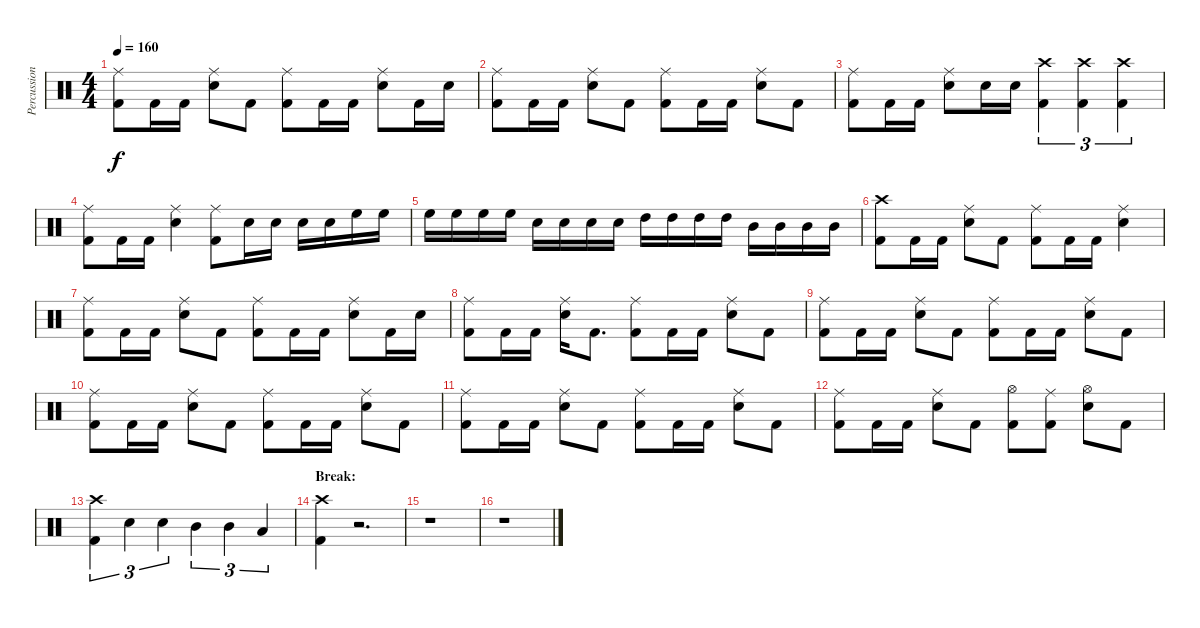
\track ("Percussion" "Percussion") {instrument percussion}
\staff {score}
\articulation defaults
\ts (4 4)
\tempo 160
\clef neutral
\ks c
("Ride (middle)" "Kick (hit) 2").8{dy f} "Kick (hit) 2".16 "Kick (hit) 2".16 ("Ride (middle)" "Electric Snare (hit)").8 "Kick (hit) 2".8 ("Ride (middle)" "Kick (hit) 2").8 "Kick (hit) 2".16 "Kick (hit) 2".16 ("Ride (middle)" "Electric Snare (hit)").8 "Kick (hit) 2".16 "Electric Snare (hit)".16 |
("Ride (middle)" "Kick (hit) 2").8 "Kick (hit) 2".16 "Kick (hit) 2".16 ("Ride (middle)" "Electric Snare (hit)").8 "Kick (hit) 2".8 ("Ride (middle)" "Kick (hit) 2").8 "Kick (hit) 2".16 "Kick (hit) 2".16 ("Ride (middle)" "Electric Snare (hit)").8 "Kick (hit) 2".8 |
("Ride (middle)" "Kick (hit) 2").8 "Kick (hit) 2".16 "Kick (hit) 2".16 ("Ride (middle)" "Electric Snare (hit)").8 "Electric Snare (hit)".16 "Electric Snare (hit)".16 ("Crash high (hit)" "Kick (hit) 2").4{tu (3 2)} ("Crash high (hit)" "Kick (hit) 2").4{tu (3 2)} ("Crash high (hit)" "Kick (hit) 2").4{tu (3 2)} |
("Ride (middle)" "Kick (hit) 2").8 "Kick (hit) 2".16 "Kick (hit) 2".16 ("Ride (middle)" "Electric Snare (hit)").4 ("Ride (middle)" "Kick (hit) 2").8 "Electric Snare (hit)".16 "Electric Snare (hit)".16 "Electric Snare (hit)".16 "Electric Snare (hit)".16 "High Floor Tom (hit)".16 "High Floor Tom (hit)".16 |
"High Floor Tom (hit)".16 "High Floor Tom (hit)".16 "High Floor Tom (hit)".16 "High Floor Tom (hit)".16 "Electric Snare (hit)".16 "Electric Snare (hit)".16 "Electric Snare (hit)".16 "Electric Snare (hit)".16 "High Tom (hit)".16 "High Tom (hit)".16 "High Tom (hit)".16 "High Tom (hit)".16 "Mid Tom (hit)".16 "Mid Tom (hit)".16 "Mid Tom (hit)".16 "Mid Tom (hit)".16 |
("Crash high (hit)" "Kick (hit) 2").8 "Kick (hit) 2".16 "Kick (hit) 2".16 ("Ride (middle)" "Electric Snare (hit)").8 "Kick (hit) 2".8 ("Ride (middle)" "Kick (hit) 2").8 "Kick (hit) 2".16 "Kick (hit) 2".16 ("Ride (middle)" "Electric Snare (hit)").4 |
("Ride (middle)" "Kick (hit) 2").8 "Kick (hit) 2".16 "Kick (hit) 2".16 ("Ride (middle)" "Electric Snare (hit)").8 "Kick (hit) 2".8 ("Ride (middle)" "Kick (hit) 2").8 "Kick (hit) 2".16 "Kick (hit) 2".16 ("Ride (middle)" "Electric Snare (hit)").8 "Kick (hit) 2".16 "Electric Snare (hit)".16 |
("Ride (middle)" "Kick (hit) 2").8 "Kick (hit) 2".16 "Kick (hit) 2".16 ("Ride (middle)" "Electric Snare (hit)").16 "Kick (hit) 2".8{d} ("Ride (middle)" "Kick (hit) 2").8 "Kick (hit) 2".16 "Kick (hit) 2".16 ("Ride (middle)" "Electric Snare (hit)").8 "Kick (hit) 2".8 |
("Ride (middle)" "Kick (hit) 2").8 "Kick (hit) 2".16 "Kick (hit) 2".16 ("Ride (middle)" "Electric Snare (hit)").8 "Kick (hit) 2".8 ("Ride (middle)" "Kick (hit) 2").8 "Kick (hit) 2".16 "Kick (hit) 2".16 ("Ride (middle)" "Electric Snare (hit)").8 "Kick (hit) 2".8 |
("Ride (middle)" "Kick (hit) 2").8 "Kick (hit) 2".16 "Kick (hit) 2".16 ("Ride (middle)" "Electric Snare (hit)").8 "Kick (hit) 2".8 ("Ride (middle)" "Kick (hit) 2").8 "Kick (hit) 2".16 "Kick (hit) 2".16 ("Ride (middle)" "Electric Snare (hit)").8 "Kick (hit) 2".8 |
("Ride (middle)" "Kick (hit) 2").8 "Kick (hit) 2".16 "Kick (hit) 2".16 ("Ride (middle)" "Electric Snare (hit)").8 "Kick (hit) 2".8 ("Ride (middle)" "Kick (hit) 2").8 "Kick (hit) 2".16 "Kick (hit) 2".16 ("Ride (middle)" "Electric Snare (hit)").8 "Kick (hit) 2".8 |
("Ride (middle)" "Kick (hit) 2").8 "Kick (hit) 2".16 "Kick (hit) 2".16 ("Ride (middle)" "Electric Snare (hit)").8 "Kick (hit) 2".8 ("Hi-Hat (open)" "Kick (hit) 2").8 ("Ride (middle)" "Kick (hit) 2").8 ("Hi-Hat (open)" "Electric Snare (hit)").8 "Kick (hit) 2".8 |
("Crash high (hit)" "Kick (hit) 2").4{tu (3 2)} "Electric Snare (hit)".4{tu (3 2)} "Electric Snare (hit)".4{tu (3 2)} "Mid Tom (hit)".4{tu (3 2)} "Mid Tom (hit)".4{tu (3 2)} "Low Tom (hit)".4{tu (3 2)} |
\section ("" "Break:")
("Crash high (hit)" "Kick (hit) 2").4 r.2{d} |
r.1 |
r.1
